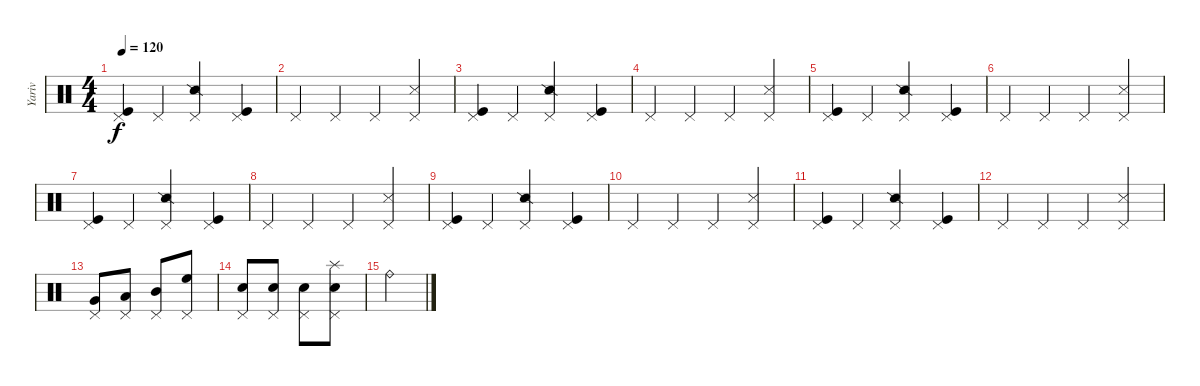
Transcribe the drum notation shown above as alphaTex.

\track ("Yariv" "Yariv") {instrument percussion}
\staff {score}
\articulation defaults
\ts (4 4)
\tempo 120
\clef neutral
\ks c
("Pedal Hi-Hat (hit)" "Kick (hit)").4{dy f} "Pedal Hi-Hat (hit)".4 ("Pedal Hi-Hat (hit)" "Snare (side stick) 2").4 ("Pedal Hi-Hat (hit)" "Kick (hit)").4 |
"Pedal Hi-Hat (hit)".4 "Pedal Hi-Hat (hit)".4 "Pedal Hi-Hat (hit)".4 ("Pedal Hi-Hat (hit)" "Snare (side stick) 3").4 |
("Pedal Hi-Hat (hit)" "Kick (hit)").4 "Pedal Hi-Hat (hit)".4 ("Pedal Hi-Hat (hit)" "Snare (side stick) 2").4 ("Pedal Hi-Hat (hit)" "Kick (hit)").4 |
"Pedal Hi-Hat (hit)".4 "Pedal Hi-Hat (hit)".4 "Pedal Hi-Hat (hit)".4 ("Pedal Hi-Hat (hit)" "Snare (side stick) 3").4 |
("Pedal Hi-Hat (hit)" "Kick (hit)").4 "Pedal Hi-Hat (hit)".4 ("Pedal Hi-Hat (hit)" "Snare (side stick) 2").4 ("Pedal Hi-Hat (hit)" "Kick (hit)").4 |
"Pedal Hi-Hat (hit)".4 "Pedal Hi-Hat (hit)".4 "Pedal Hi-Hat (hit)".4 ("Pedal Hi-Hat (hit)" "Snare (side stick) 3").4 |
("Pedal Hi-Hat (hit)" "Kick (hit)").4 "Pedal Hi-Hat (hit)".4 ("Pedal Hi-Hat (hit)" "Snare (side stick) 2").4 ("Pedal Hi-Hat (hit)" "Kick (hit)").4 |
"Pedal Hi-Hat (hit)".4 "Pedal Hi-Hat (hit)".4 "Pedal Hi-Hat (hit)".4 ("Pedal Hi-Hat (hit)" "Snare (side stick) 3").4 |
("Pedal Hi-Hat (hit)" "Kick (hit)").4 "Pedal Hi-Hat (hit)".4 ("Pedal Hi-Hat (hit)" "Snare (side stick) 2").4 ("Pedal Hi-Hat (hit)" "Kick (hit)").4 |
"Pedal Hi-Hat (hit)".4 "Pedal Hi-Hat (hit)".4 "Pedal Hi-Hat (hit)".4 ("Pedal Hi-Hat (hit)" "Snare (side stick) 3").4 |
("Pedal Hi-Hat (hit)" "Kick (hit)").4 "Pedal Hi-Hat (hit)".4 ("Pedal Hi-Hat (hit)" "Snare (side stick) 2").4 ("Pedal Hi-Hat (hit)" "Kick (hit)").4 |
"Pedal Hi-Hat (hit)".4 "Pedal Hi-Hat (hit)".4 "Pedal Hi-Hat (hit)".4 ("Pedal Hi-Hat (hit)" "Snare (side stick) 3").4 |
("Pedal Hi-Hat (hit)" "Very Low Tom (hit)").8 ("Pedal Hi-Hat (hit)" "Low Tom (hit)").8 ("Pedal Hi-Hat (hit)" "Mid Tom (hit)").8 ("Pedal Hi-Hat (hit)" "High Floor Tom (hit)").8 |
("Pedal Hi-Hat (hit)" "Snare (hit) 2").8 ("Pedal Hi-Hat (hit)" "Snare (hit) 2").8 ("Pedal Hi-Hat (hit)" "Snare (hit) 2").8 ("Pedal Hi-Hat (hit)" "Snare (hit) 2" "Splash (hit)").8 |
"Ride (bell)".4
